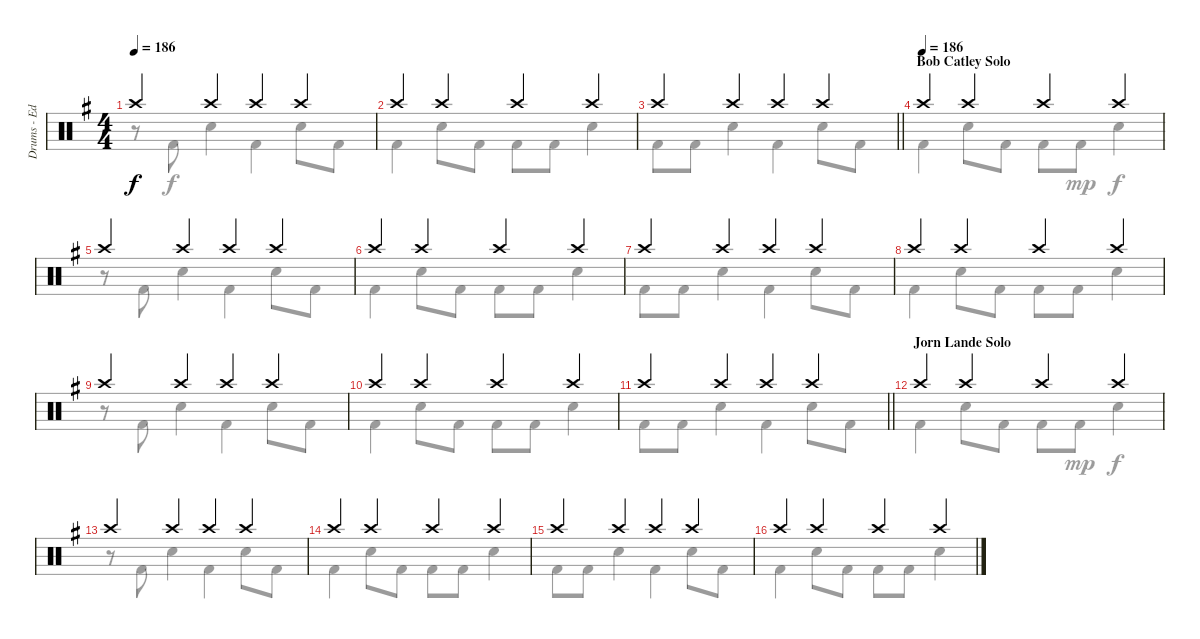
\track ("Drums - Ed Warby" "Drums - Ed") {instrument percussion}
\staff {score}
\articulation defaults
\voice
\ts (4 4)
\tempo 186
\clef neutral
\ks eminor "Crash high (hit)".4{dy f} "Crash high (hit)".4 "Crash high (hit)".4 "Crash high (hit)".4
|
"Crash high (hit)".4 "Crash high (hit)".4 "Crash high (hit)".4 "Crash high (hit)".4 |
\barLineRight lightlight "Crash high (hit)".4 "Crash high (hit)".4 "Crash high (hit)".4 "Crash high (hit)".4
|
\section ("" "Bob Catley Solo")
\tempo (186)
"Crash high (hit)".4 "Crash high (hit)".4 "Crash high (hit)".4 "Crash high (hit)".4 |
"Crash high (hit)".4 "Crash high (hit)".4 "Crash high (hit)".4 "Crash high (hit)".4 |
"Crash high (hit)".4 "Crash high (hit)".4 "Crash high (hit)".4 "Crash high (hit)".4 |
"Crash high (hit)".4 "Crash high (hit)".4 "Crash high (hit)".4 "Crash high (hit)".4 |
"Crash high (hit)".4 "Crash high (hit)".4 "Crash high (hit)".4 "Crash high (hit)".4 |
"Crash high (hit)".4 "Crash high (hit)".4 "Crash high (hit)".4 "Crash high (hit)".4 |
"Crash high (hit)".4 "Crash high (hit)".4 "Crash high (hit)".4 "Crash high (hit)".4 |
\barLineRight lightlight "Crash high (hit)".4 "Crash high (hit)".4 "Crash high (hit)".4 "Crash high (hit)".4
|
\section ("" "Jorn Lande Solo")
"Crash high (hit)".4 "Crash high (hit)".4 "Crash high (hit)".4 "Crash high (hit)".4 |
"Crash high (hit)".4 "Crash high (hit)".4 "Crash high (hit)".4 "Crash high (hit)".4 |
"Crash high (hit)".4 "Crash high (hit)".4 "Crash high (hit)".4 "Crash high (hit)".4 |
"Crash high (hit)".4 "Crash high (hit)".4 "Crash high (hit)".4 "Crash high (hit)".4 |
"Crash high (hit)".4 "Crash high (hit)".4 "Crash high (hit)".4 "Crash high (hit)".4
\voice
\clef neutral
\ottava regular
\simile none
\ks eminor
r.8{dy f} "Kick (hit) 2".8 "Snare (hit) 2".4 "Kick (hit) 2".4 "Snare (hit) 2".8 "Kick (hit) 2".8 |
"Kick (hit) 2".4 "Snare (hit) 2".8 "Kick (hit) 2".8 "Kick (hit) 2".8 "Kick (hit) 2".8 "Snare (hit) 2".4 |
\barLineRight lightlight "Kick (hit) 2".8 "Kick (hit) 2".8 "Snare (hit) 2".4 "Kick (hit) 2".4 "Snare (hit) 2".8 "Kick (hit) 2".8
|
"Kick (hit) 2".4 "Snare (hit) 2".8 "Kick (hit) 2".8 "Kick (hit) 2".8 "Kick (hit) 2".8{dy mp} "Snare (hit) 2".4{dy f} |
r.8 "Kick (hit) 2".8 "Snare (hit) 2".4 "Kick (hit) 2".4 "Snare (hit) 2".8 "Kick (hit) 2".8 |
"Kick (hit) 2".4 "Snare (hit) 2".8 "Kick (hit) 2".8 "Kick (hit) 2".8 "Kick (hit) 2".8 "Snare (hit) 2".4 |
"Kick (hit) 2".8 "Kick (hit) 2".8 "Snare (hit) 2".4 "Kick (hit) 2".4 "Snare (hit) 2".8 "Kick (hit) 2".8 |
"Kick (hit) 2".4 "Snare (hit) 2".8 "Kick (hit) 2".8 "Kick (hit) 2".8 "Kick (hit) 2".8 "Snare (hit) 2".4 |
r.8 "Kick (hit) 2".8 "Snare (hit) 2".4 "Kick (hit) 2".4 "Snare (hit) 2".8 "Kick (hit) 2".8 |
"Kick (hit) 2".4 "Snare (hit) 2".8 "Kick (hit) 2".8 "Kick (hit) 2".8 "Kick (hit) 2".8 "Snare (hit) 2".4 |
\barLineRight lightlight "Kick (hit) 2".8 "Kick (hit) 2".8 "Snare (hit) 2".4 "Kick (hit) 2".4 "Snare (hit) 2".8 "Kick (hit) 2".8
|
"Kick (hit) 2".4 "Snare (hit) 2".8 "Kick (hit) 2".8 "Kick (hit) 2".8 "Kick (hit) 2".8{dy mp} "Snare (hit) 2".4{dy f} |
r.8 "Kick (hit) 2".8 "Snare (hit) 2".4 "Kick (hit) 2".4 "Snare (hit) 2".8 "Kick (hit) 2".8 |
"Kick (hit) 2".4 "Snare (hit) 2".8 "Kick (hit) 2".8 "Kick (hit) 2".8 "Kick (hit) 2".8 "Snare (hit) 2".4 |
"Kick (hit) 2".8 "Kick (hit) 2".8 "Snare (hit) 2".4 "Kick (hit) 2".4 "Snare (hit) 2".8 "Kick (hit) 2".8 |
"Kick (hit) 2".4 "Snare (hit) 2".8 "Kick (hit) 2".8 "Kick (hit) 2".8 "Kick (hit) 2".8 "Snare (hit) 2".4
